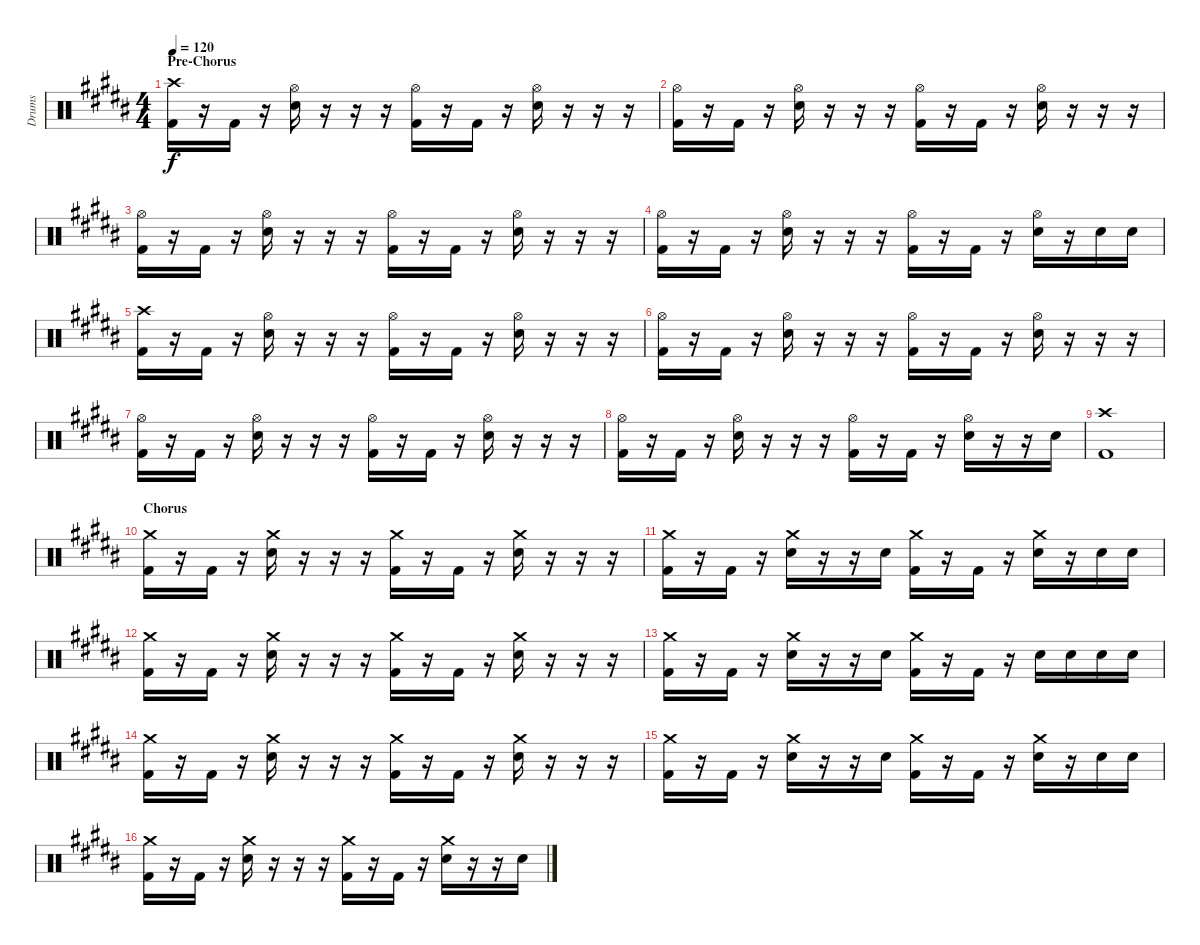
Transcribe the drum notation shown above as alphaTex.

\track ("Drums" "Drums") {instrument percussion}
\staff {score}
\articulation defaults
\ts (4 4)
\section ("" "Pre-Chorus")
\tempo 120
\clef neutral
\ks b
("Crash high (hit)" "Kick (hit) 2").16{dy f} r.16 "Kick (hit) 2".16 r.16 ("Hi-Hat (open)" "Snare (hit) 2").16 r.16 r.16 r.16 ("Hi-Hat (open)" "Kick (hit) 2").16 r.16 "Kick (hit) 2".16 r.16 ("Hi-Hat (open)" "Snare (hit) 2").16 r.16 r.16 r.16 |
("Hi-Hat (open)" "Kick (hit) 2").16 r.16 "Kick (hit) 2".16 r.16 ("Hi-Hat (open)" "Snare (hit) 2").16 r.16 r.16 r.16 ("Hi-Hat (open)" "Kick (hit) 2").16 r.16 "Kick (hit) 2".16 r.16 ("Hi-Hat (open)" "Snare (hit) 2").16 r.16 r.16 r.16 |
("Hi-Hat (open)" "Kick (hit) 2").16 r.16 "Kick (hit) 2".16 r.16 ("Hi-Hat (open)" "Snare (hit) 2").16 r.16 r.16 r.16 ("Hi-Hat (open)" "Kick (hit) 2").16 r.16 "Kick (hit) 2".16 r.16 ("Hi-Hat (open)" "Snare (hit) 2").16 r.16 r.16 r.16 |
("Hi-Hat (open)" "Kick (hit) 2").16 r.16 "Kick (hit) 2".16 r.16 ("Hi-Hat (open)" "Snare (hit) 2").16 r.16 r.16 r.16 ("Hi-Hat (open)" "Kick (hit) 2").16 r.16 "Kick (hit) 2".16 r.16 ("Hi-Hat (open)" "Snare (hit) 2").16 r.16 "Snare (hit) 2".16 "Snare (hit) 2".16 |
("Crash high (hit)" "Kick (hit) 2").16 r.16 "Kick (hit) 2".16 r.16 ("Hi-Hat (open)" "Snare (hit) 2").16 r.16 r.16 r.16 ("Hi-Hat (open)" "Kick (hit) 2").16 r.16 "Kick (hit) 2".16 r.16 ("Hi-Hat (open)" "Snare (hit) 2").16 r.16 r.16 r.16 |
("Hi-Hat (open)" "Kick (hit) 2").16 r.16 "Kick (hit) 2".16 r.16 ("Hi-Hat (open)" "Snare (hit) 2").16 r.16 r.16 r.16 ("Hi-Hat (open)" "Kick (hit) 2").16 r.16 "Kick (hit) 2".16 r.16 ("Hi-Hat (open)" "Snare (hit) 2").16 r.16 r.16 r.16 |
("Hi-Hat (open)" "Kick (hit) 2").16 r.16 "Kick (hit) 2".16 r.16 ("Hi-Hat (open)" "Snare (hit) 2").16 r.16 r.16 r.16 ("Hi-Hat (open)" "Kick (hit) 2").16 r.16 "Kick (hit) 2".16 r.16 ("Hi-Hat (open)" "Snare (hit) 2").16 r.16 r.16 r.16 |
("Hi-Hat (open)" "Kick (hit) 2").16 r.16 "Kick (hit) 2".16 r.16 ("Hi-Hat (open)" "Snare (hit) 2").16 r.16 r.16 r.16 ("Hi-Hat (open)" "Kick (hit) 2").16 r.16 "Kick (hit) 2".16 r.16 ("Hi-Hat (open)" "Snare (hit) 2").16 r.16 r.16 "Snare (hit) 2".16 |
("Crash high (hit)" "Kick (hit) 2").1 |
\section ("" "Chorus")
("Crash medium (hit)" "Kick (hit) 2").16 r.16 "Kick (hit) 2".16 r.16 ("Crash medium (hit)" "Snare (hit) 2").16 r.16 r.16 r.16 ("Crash medium (hit)" "Kick (hit) 2").16 r.16 "Kick (hit) 2".16 r.16 ("Crash medium (hit)" "Snare (hit) 2").16 r.16 r.16 r.16 |
("Crash medium (hit)" "Kick (hit) 2").16 r.16 "Kick (hit) 2".16 r.16 ("Crash medium (hit)" "Snare (hit) 2").16 r.16 r.16 "Snare (hit) 2".16 ("Crash medium (hit)" "Kick (hit) 2").16 r.16 "Kick (hit) 2".16 r.16 ("Crash medium (hit)" "Snare (hit) 2").16 r.16 "Snare (hit) 2".16 "Snare (hit) 2".16 |
("Crash medium (hit)" "Kick (hit) 2").16 r.16 "Kick (hit) 2".16 r.16 ("Crash medium (hit)" "Snare (hit) 2").16 r.16 r.16 r.16 ("Crash medium (hit)" "Kick (hit) 2").16 r.16 "Kick (hit) 2".16 r.16 ("Crash medium (hit)" "Snare (hit) 2").16 r.16 r.16 r.16 |
("Crash medium (hit)" "Kick (hit) 2").16 r.16 "Kick (hit) 2".16 r.16 ("Crash medium (hit)" "Snare (hit) 2").16 r.16 r.16 "Snare (hit) 2".16 ("Crash medium (hit)" "Kick (hit) 2").16 r.16 "Kick (hit) 2".16 r.16 "Snare (hit) 2".16 "Snare (hit) 2".16 "Snare (hit) 2".16 "Snare (hit) 2".16 |
("Crash medium (hit)" "Kick (hit) 2").16 r.16 "Kick (hit) 2".16 r.16 ("Crash medium (hit)" "Snare (hit) 2").16 r.16 r.16 r.16 ("Crash medium (hit)" "Kick (hit) 2").16 r.16 "Kick (hit) 2".16 r.16 ("Crash medium (hit)" "Snare (hit) 2").16 r.16 r.16 r.16 |
("Crash medium (hit)" "Kick (hit) 2").16 r.16 "Kick (hit) 2".16 r.16 ("Crash medium (hit)" "Snare (hit) 2").16 r.16 r.16 "Snare (hit) 2".16 ("Crash medium (hit)" "Kick (hit) 2").16 r.16 "Kick (hit) 2".16 r.16 ("Crash medium (hit)" "Snare (hit) 2").16 r.16 "Snare (hit) 2".16 "Snare (hit) 2".16 |
("Crash medium (hit)" "Kick (hit) 2").16 r.16 "Kick (hit) 2".16 r.16 ("Crash medium (hit)" "Snare (hit) 2").16 r.16 r.16 r.16 ("Crash medium (hit)" "Kick (hit) 2").16 r.16 "Kick (hit) 2".16 r.16 ("Crash medium (hit)" "Snare (hit) 2").16 r.16 r.16 "Snare (hit) 2".16
